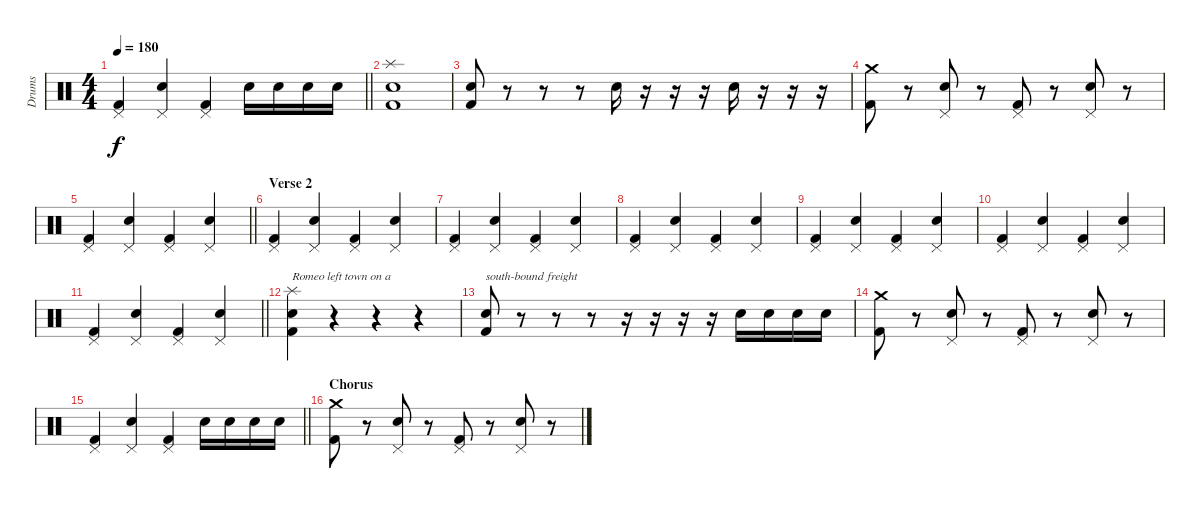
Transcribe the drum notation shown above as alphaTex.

\track ("Drums" "Drums") {instrument percussion}
\staff {score}
\articulation defaults
\ts (4 4)
\tempo 180
\clef neutral
\barLineRight lightlight
\ks c
("Pedal Hi-Hat (hit)" "Kick (hit) 2").4{dy f} ("Pedal Hi-Hat (hit)" "Snare (hit) 2").4 ("Pedal Hi-Hat (hit)" "Kick (hit) 2").4 "Snare (hit) 2".16 "Snare (hit) 2".16 "Snare (hit) 2".16 "Snare (hit) 2".16 |
("Splash (hit)" "Snare (hit) 2" "Kick (hit) 2").1 |
("Snare (hit) 2" "Kick (hit) 2").8 r.8 r.8 r.8 "Snare (hit) 2".16 r.16 r.16 r.16 "Snare (hit) 2".16 r.16 r.16 r.16 |
("Crash medium (hit)" "Kick (hit) 2").8 r.8 ("Pedal Hi-Hat (hit)" "Snare (hit) 2").8 r.8 ("Pedal Hi-Hat (hit)" "Kick (hit) 2").8 r.8 ("Pedal Hi-Hat (hit)" "Snare (hit) 2").8 r.8 |
\barLineRight lightlight
("Pedal Hi-Hat (hit)" "Kick (hit) 2").4 ("Pedal Hi-Hat (hit)" "Snare (hit) 2").4 ("Pedal Hi-Hat (hit)" "Kick (hit) 2").4 ("Pedal Hi-Hat (hit)" "Snare (hit) 2").4 |
\section ("" "Verse 2")
("Pedal Hi-Hat (hit)" "Kick (hit) 2").4 ("Pedal Hi-Hat (hit)" "Snare (hit) 2").4 ("Pedal Hi-Hat (hit)" "Kick (hit) 2").4 ("Pedal Hi-Hat (hit)" "Snare (hit) 2").4 |
("Pedal Hi-Hat (hit)" "Kick (hit) 2").4 ("Pedal Hi-Hat (hit)" "Snare (hit) 2").4 ("Pedal Hi-Hat (hit)" "Kick (hit) 2").4 ("Pedal Hi-Hat (hit)" "Snare (hit) 2").4 |
("Pedal Hi-Hat (hit)" "Kick (hit) 2").4 ("Pedal Hi-Hat (hit)" "Snare (hit) 2").4 ("Pedal Hi-Hat (hit)" "Kick (hit) 2").4 ("Pedal Hi-Hat (hit)" "Snare (hit) 2").4 |
("Pedal Hi-Hat (hit)" "Kick (hit) 2").4 ("Pedal Hi-Hat (hit)" "Snare (hit) 2").4 ("Pedal Hi-Hat (hit)" "Kick (hit) 2").4 ("Pedal Hi-Hat (hit)" "Snare (hit) 2").4 |
("Pedal Hi-Hat (hit)" "Kick (hit) 2").4 ("Pedal Hi-Hat (hit)" "Snare (hit) 2").4 ("Pedal Hi-Hat (hit)" "Kick (hit) 2").4 ("Pedal Hi-Hat (hit)" "Snare (hit) 2").4 |
\barLineRight lightlight
("Pedal Hi-Hat (hit)" "Kick (hit) 2").4 ("Pedal Hi-Hat (hit)" "Snare (hit) 2").4 ("Pedal Hi-Hat (hit)" "Kick (hit) 2").4 ("Pedal Hi-Hat (hit)" "Snare (hit) 2").4 |
("Splash (hit)" "Snare (hit) 2" "Kick (hit) 2").4{txt "Romeo left town on a "} r.4 r.4 r.4 |
("Snare (hit) 2" "Kick (hit) 2").8{txt "south-bound freight"} r.8 r.8 r.8 r.16 r.16 r.16 r.16 "Snare (hit) 2".16 "Snare (hit) 2".16 "Snare (hit) 2".16 "Snare (hit) 2".16 |
("Crash medium (hit)" "Kick (hit) 2").8 r.8 ("Pedal Hi-Hat (hit)" "Snare (hit) 2").8 r.8 ("Pedal Hi-Hat (hit)" "Kick (hit) 2").8 r.8 ("Pedal Hi-Hat (hit)" "Snare (hit) 2").8 r.8 |
\barLineRight lightlight
("Pedal Hi-Hat (hit)" "Kick (hit) 2").4 ("Pedal Hi-Hat (hit)" "Snare (hit) 2").4 ("Pedal Hi-Hat (hit)" "Kick (hit) 2").4 "Snare (hit) 2".16 "Snare (hit) 2".16 "Snare (hit) 2".16 "Snare (hit) 2".16 |
\section ("" "Chorus")
("Crash medium (hit)" "Kick (hit) 2").8 r.8 ("Pedal Hi-Hat (hit)" "Snare (hit) 2").8 r.8 ("Pedal Hi-Hat (hit)" "Kick (hit) 2").8 r.8 ("Pedal Hi-Hat (hit)" "Snare (hit) 2").8 r.8
